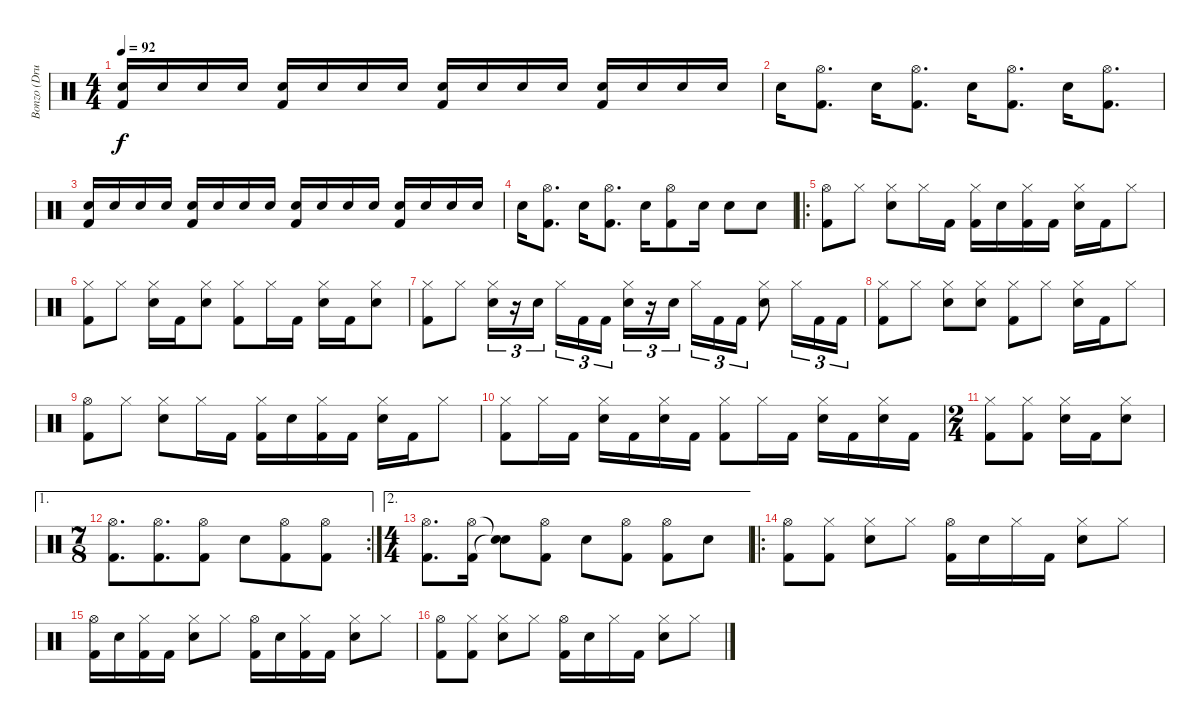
\track ("Bonzo (Drums)" "Bonzo (Dru") {instrument percussion}
\staff {score}
\articulation defaults
\ts (4 4)
\tempo 92
\clef neutral
\ks c
("Snare (hit) 2" "Kick (hit) 2").16{dy f} "Snare (hit) 2".16 "Snare (hit) 2".16 "Snare (hit) 2".16 ("Snare (hit) 2" "Kick (hit) 2").16 "Snare (hit) 2".16 "Snare (hit) 2".16 "Snare (hit) 2".16 ("Snare (hit) 2" "Kick (hit) 2").16 "Snare (hit) 2".16 "Snare (hit) 2".16 "Snare (hit) 2".16 ("Snare (hit) 2" "Kick (hit) 2").16 "Snare (hit) 2".16 "Snare (hit) 2".16 "Snare (hit) 2".16 |
"Snare (hit) 2".16 ("Hi-Hat (open)" "Kick (hit) 2").8{d} "Snare (hit) 2".16 ("Hi-Hat (open)" "Kick (hit) 2").8{d} "Snare (hit) 2".16 ("Hi-Hat (open)" "Kick (hit) 2").8{d} "Snare (hit) 2".16 ("Hi-Hat (open)" "Kick (hit) 2").8{d} |
("Snare (hit) 2" "Kick (hit) 2").16 "Snare (hit) 2".16 "Snare (hit) 2".16 "Snare (hit) 2".16 ("Snare (hit) 2" "Kick (hit) 2").16 "Snare (hit) 2".16 "Snare (hit) 2".16 "Snare (hit) 2".16 ("Snare (hit) 2" "Kick (hit) 2").16 "Snare (hit) 2".16 "Snare (hit) 2".16 "Snare (hit) 2".16 ("Snare (hit) 2" "Kick (hit) 2").16 "Snare (hit) 2".16 "Snare (hit) 2".16 "Snare (hit) 2".16 |
"Snare (hit) 2".16 ("Hi-Hat (open)" "Kick (hit) 2").8{d} "Snare (hit) 2".16 ("Hi-Hat (open)" "Kick (hit) 2").8{d} "Snare (hit) 2".16 ("Hi-Hat (open)" "Kick (hit) 2").8 "Snare (hit) 2".16 "Snare (hit) 2".8 "Snare (hit) 2".8 |
\ro
("Hi-Hat (open)" "Kick (hit) 2").8 "Hi-Hat (closed)".8 ("Hi-Hat (closed)" "Snare (hit) 2").8 "Hi-Hat (closed)".16 "Kick (hit) 2".16 ("Hi-Hat (closed)" "Kick (hit) 2").16 "Snare (hit) 2".16 ("Hi-Hat (closed)" "Kick (hit) 2").16 "Kick (hit) 2".16 ("Hi-Hat (closed)" "Snare (hit) 2").16 "Kick (hit) 2".16 "Hi-Hat (closed)".8 |
("Hi-Hat (closed)" "Kick (hit) 2").8 "Hi-Hat (closed)".8 ("Hi-Hat (closed)" "Snare (hit) 2").16 "Kick (hit) 2".16 ("Hi-Hat (closed)" "Snare (hit) 2").8 ("Hi-Hat (closed)" "Kick (hit) 2").8 "Hi-Hat (closed)".16 "Kick (hit) 2".16 ("Hi-Hat (closed)" "Snare (hit) 2").16 "Kick (hit) 2".16 ("Hi-Hat (closed)" "Snare (hit) 2").8 |
("Hi-Hat (closed)" "Kick (hit) 2").8 "Hi-Hat (closed)".8 ("Hi-Hat (closed)" "Snare (hit) 2").16{tu (3 2)} r.16{tu (3 2)} "Snare (hit) 2".16{tu (3 2)} "Hi-Hat (closed)".16{tu (3 2)} "Kick (hit) 2".16{tu (3 2)} "Kick (hit) 2".16{tu (3 2)} ("Hi-Hat (closed)" "Snare (hit) 2").16{tu (3 2)} r.16{tu (3 2)} "Snare (hit) 2".16{tu (3 2)} "Hi-Hat (closed)".16{tu (3 2)} "Kick (hit) 2".16{tu (3 2)} "Kick (hit) 2".16{tu (3 2)} ("Hi-Hat (closed)" "Snare (hit) 2").8 "Hi-Hat (closed)".16{tu (3 2)} "Kick (hit) 2".16{tu (3 2)} "Kick (hit) 2".16{tu (3 2)} |
("Hi-Hat (closed)" "Kick (hit) 2").8 "Hi-Hat (closed)".8 ("Hi-Hat (closed)" "Snare (hit) 2").8 ("Hi-Hat (closed)" "Snare (hit) 2").8 ("Hi-Hat (closed)" "Kick (hit) 2").8 "Hi-Hat (closed)".8 ("Hi-Hat (closed)" "Snare (hit) 2").16 "Kick (hit) 2".16 "Hi-Hat (closed)".8 |
("Hi-Hat (open)" "Kick (hit) 2").8 "Hi-Hat (closed)".8 ("Hi-Hat (closed)" "Snare (hit) 2").8 "Hi-Hat (closed)".16 "Kick (hit) 2".16 ("Hi-Hat (closed)" "Kick (hit) 2").16 "Snare (hit) 2".16 ("Hi-Hat (closed)" "Kick (hit) 2").16 "Kick (hit) 2".16 ("Hi-Hat (closed)" "Snare (hit) 2").16 "Kick (hit) 2".16 "Hi-Hat (closed)".8 |
("Hi-Hat (closed)" "Kick (hit) 2").8 "Hi-Hat (closed)".16 "Kick (hit) 2".16 ("Hi-Hat (closed)" "Snare (hit) 2").16 "Kick (hit) 2".16 ("Hi-Hat (closed)" "Snare (hit) 2").16 "Kick (hit) 2".16 ("Hi-Hat (closed)" "Kick (hit) 2").8 "Hi-Hat (closed)".16 "Kick (hit) 2".16 ("Hi-Hat (closed)" "Snare (hit) 2").16 "Kick (hit) 2".16 ("Hi-Hat (closed)" "Snare (hit) 2").16 "Kick (hit) 2".16 |
\ts (2 4)
("Hi-Hat (closed)" "Kick (hit) 2").8 ("Hi-Hat (closed)" "Kick (hit) 2").8 ("Hi-Hat (closed)" "Snare (hit) 2").16 "Kick (hit) 2".16 ("Hi-Hat (closed)" "Snare (hit) 2").8 |
\ae 1
\rc 2
\ts (7 8)
("Hi-Hat (open)" "Kick (hit) 2").8{d} ("Hi-Hat (open)" "Kick (hit) 2").8{d} ("Hi-Hat (open)" "Kick (hit) 2").8 "Snare (hit) 2".8 ("Hi-Hat (open)" "Kick (hit) 2").8 ("Hi-Hat (open)" "Kick (hit) 2").8 |
\ae 2
\ts (4 4)
("Hi-Hat (open)" "Kick (hit) 2").8{d} ("Hi-Hat (open)" "Kick (hit) 2").16 ("Snare (hit)"{t} "Snare (hit)"{t}).8 ("Hi-Hat (open)" "Kick (hit) 2").8 "Snare (hit) 2".8 ("Hi-Hat (open)" "Kick (hit) 2").8 ("Hi-Hat (open)" "Kick (hit) 2").8 "Snare (hit) 2".8 |
\ro
("Hi-Hat (open)" "Kick (hit) 2").8 ("Hi-Hat (closed)" "Kick (hit) 2").8 ("Hi-Hat (closed)" "Snare (hit) 2").8 "Hi-Hat (closed)".8 ("Hi-Hat (open)" "Kick (hit) 2").16 "Snare (hit) 2".16 "Hi-Hat (closed)".16 "Kick (hit) 2".16 ("Hi-Hat (closed)" "Snare (hit) 2").8 "Hi-Hat (closed)".8 |
("Hi-Hat (open)" "Kick (hit) 2").16 "Snare (hit) 2".16 ("Hi-Hat (closed)" "Kick (hit) 2").16 "Kick (hit) 2".16 ("Hi-Hat (closed)" "Snare (hit) 2").8 "Hi-Hat (closed)".8 ("Hi-Hat (open)" "Kick (hit) 2").16 "Snare (hit) 2".16 ("Hi-Hat (closed)" "Kick (hit) 2").16 "Kick (hit) 2".16 ("Hi-Hat (closed)" "Snare (hit) 2").8 "Hi-Hat (closed)".8 |
("Hi-Hat (open)" "Kick (hit) 2").8 ("Hi-Hat (closed)" "Kick (hit) 2").8 ("Hi-Hat (closed)" "Snare (hit) 2").8 "Hi-Hat (closed)".8 ("Hi-Hat (open)" "Kick (hit) 2").16 "Snare (hit) 2".16 "Hi-Hat (closed)".16 "Kick (hit) 2".16 ("Hi-Hat (closed)" "Snare (hit) 2").8 "Hi-Hat (closed)".8
